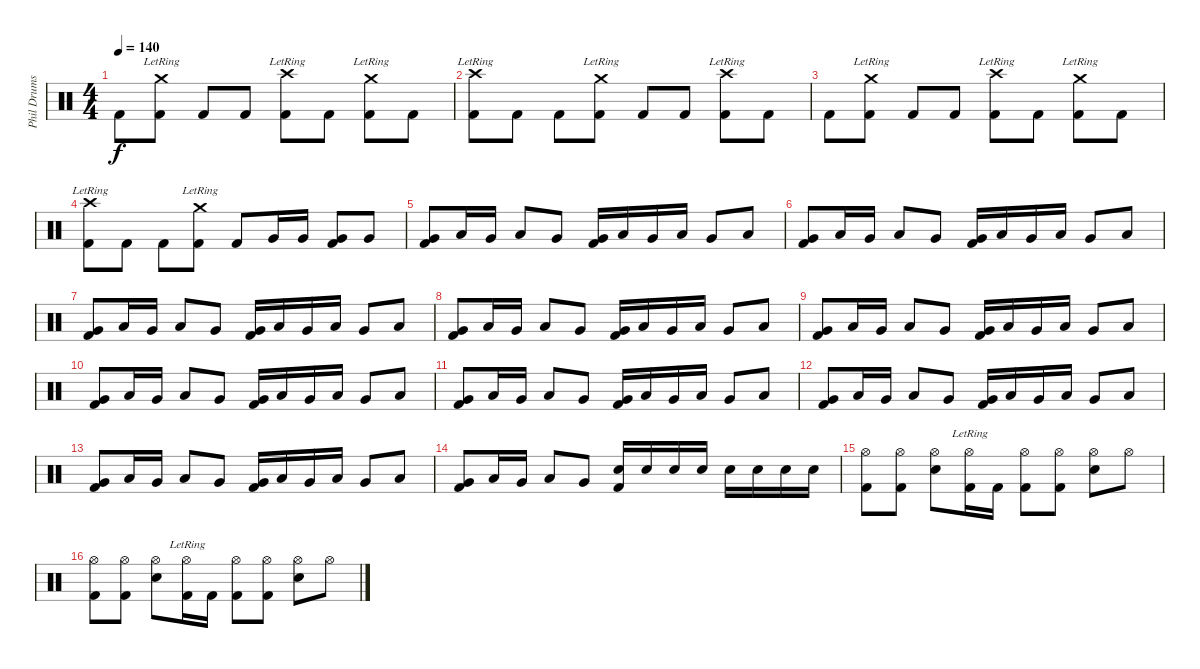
\track ("Phil Drums" "Phil Drums") {instrument percussion}
\staff {score}
\articulation defaults
\ts (4 4)
\tempo 140
\clef neutral
\ks c "Kick (hit) 2".8{dy f}
("Kick (hit) 2" "Crash medium (hit)"{lr}).8 "Kick (hit) 2".8 "Kick (hit) 2".8 ("Kick (hit) 2" "Crash high (hit)"{lr}).8 "Kick (hit) 2".8 ("Kick (hit) 2" "Crash medium (hit)"{lr}).8 "Kick (hit) 2".8 |
("Kick (hit) 2" "Crash high (hit)"{lr}).8 "Kick (hit) 2".8 "Kick (hit) 2".8 ("Kick (hit) 2" "Crash medium (hit)"{lr}).8 "Kick (hit) 2".8 "Kick (hit) 2".8 ("Kick (hit) 2" "Crash high (hit)"{lr}).8 "Kick (hit) 2".8 |
"Kick (hit) 2".8 ("Kick (hit) 2" "Crash medium (hit)"{lr}).8 "Kick (hit) 2".8 "Kick (hit) 2".8 ("Kick (hit) 2" "Crash high (hit)"{lr}).8 "Kick (hit) 2".8 ("Kick (hit) 2" "Crash medium (hit)"{lr}).8 "Kick (hit) 2".8 |
("Kick (hit) 2" "Crash high (hit)"{lr}).8 "Kick (hit) 2".8 "Kick (hit) 2".8 ("Kick (hit) 2" "Crash medium (hit)"{lr}).8 "Kick (hit) 2".8 "Very Low Tom (hit)".16 "Very Low Tom (hit)".16 ("Kick (hit) 2" "Very Low Tom (hit)").8 "Very Low Tom (hit)".8 |
("Kick (hit) 2" "Very Low Tom (hit)").8 "Low Tom (hit)".16 "Very Low Tom (hit)".16 "Low Tom (hit)".8 "Very Low Tom (hit)".8 ("Kick (hit) 2" "Very Low Tom (hit)").16 "Low Tom (hit)".16 "Very Low Tom (hit)".16 "Low Tom (hit)".16 "Very Low Tom (hit)".8 "Low Tom (hit)".8 |
("Kick (hit) 2" "Very Low Tom (hit)").8 "Low Tom (hit)".16 "Very Low Tom (hit)".16 "Low Tom (hit)".8 "Very Low Tom (hit)".8 ("Kick (hit) 2" "Very Low Tom (hit)").16 "Low Tom (hit)".16 "Very Low Tom (hit)".16 "Low Tom (hit)".16 "Very Low Tom (hit)".8 "Low Tom (hit)".8 |
("Kick (hit) 2" "Very Low Tom (hit)").8 "Low Tom (hit)".16 "Very Low Tom (hit)".16 "Low Tom (hit)".8 "Very Low Tom (hit)".8 ("Kick (hit) 2" "Very Low Tom (hit)").16 "Low Tom (hit)".16 "Very Low Tom (hit)".16 "Low Tom (hit)".16 "Very Low Tom (hit)".8 "Low Tom (hit)".8 |
("Kick (hit) 2" "Very Low Tom (hit)").8 "Low Tom (hit)".16 "Very Low Tom (hit)".16 "Low Tom (hit)".8 "Very Low Tom (hit)".8 ("Kick (hit) 2" "Very Low Tom (hit)").16 "Low Tom (hit)".16 "Very Low Tom (hit)".16 "Low Tom (hit)".16 "Very Low Tom (hit)".8 "Low Tom (hit)".8 |
("Kick (hit) 2" "Very Low Tom (hit)").8 "Low Tom (hit)".16 "Very Low Tom (hit)".16 "Low Tom (hit)".8 "Very Low Tom (hit)".8 ("Kick (hit) 2" "Very Low Tom (hit)").16 "Low Tom (hit)".16 "Very Low Tom (hit)".16 "Low Tom (hit)".16 "Very Low Tom (hit)".8 "Low Tom (hit)".8 |
("Kick (hit) 2" "Very Low Tom (hit)").8 "Low Tom (hit)".16 "Very Low Tom (hit)".16 "Low Tom (hit)".8 "Very Low Tom (hit)".8 ("Kick (hit) 2" "Very Low Tom (hit)").16 "Low Tom (hit)".16 "Very Low Tom (hit)".16 "Low Tom (hit)".16 "Very Low Tom (hit)".8 "Low Tom (hit)".8 |
("Kick (hit) 2" "Very Low Tom (hit)").8 "Low Tom (hit)".16 "Very Low Tom (hit)".16 "Low Tom (hit)".8 "Very Low Tom (hit)".8 ("Kick (hit) 2" "Very Low Tom (hit)").16 "Low Tom (hit)".16 "Very Low Tom (hit)".16 "Low Tom (hit)".16 "Very Low Tom (hit)".8 "Low Tom (hit)".8 |
("Kick (hit) 2" "Very Low Tom (hit)").8 "Low Tom (hit)".16 "Very Low Tom (hit)".16 "Low Tom (hit)".8 "Very Low Tom (hit)".8 ("Kick (hit) 2" "Very Low Tom (hit)").16 "Low Tom (hit)".16 "Very Low Tom (hit)".16 "Low Tom (hit)".16 "Very Low Tom (hit)".8 "Low Tom (hit)".8 |
("Kick (hit) 2" "Very Low Tom (hit)").8 "Low Tom (hit)".16 "Very Low Tom (hit)".16 "Low Tom (hit)".8 "Very Low Tom (hit)".8 ("Kick (hit) 2" "Very Low Tom (hit)").16 "Low Tom (hit)".16 "Very Low Tom (hit)".16 "Low Tom (hit)".16 "Very Low Tom (hit)".8 "Low Tom (hit)".8 |
("Kick (hit) 2" "Very Low Tom (hit)").8 "Low Tom (hit)".16 "Very Low Tom (hit)".16 "Low Tom (hit)".8 "Very Low Tom (hit)".8 ("Kick (hit) 2" "Snare (hit) 2").16 "Snare (hit) 2".16 "Snare (hit) 2".16 "Snare (hit) 2".16 "Snare (hit) 2".16 "Snare (hit) 2".16 "Snare (hit) 2".16 "Snare (hit) 2".16 |
("Kick (hit) 2" "Hi-Hat (open)").8 ("Kick (hit) 2" "Hi-Hat (open)").8 ("Snare (hit) 2" "Hi-Hat (open)").8 ("Kick (hit) 2" "Hi-Hat (open)"{lr}).16 "Kick (hit) 2".16 ("Kick (hit) 2" "Hi-Hat (open)").8 ("Kick (hit) 2" "Hi-Hat (open)").8 ("Snare (hit) 2" "Hi-Hat (open)").8 "Hi-Hat (open)".8 |
("Kick (hit) 2" "Hi-Hat (open)").8 ("Kick (hit) 2" "Hi-Hat (open)").8 ("Snare (hit) 2" "Hi-Hat (open)").8 ("Kick (hit) 2" "Hi-Hat (open)"{lr}).16 "Kick (hit) 2".16 ("Kick (hit) 2" "Hi-Hat (open)").8 ("Kick (hit) 2" "Hi-Hat (open)").8 ("Snare (hit) 2" "Hi-Hat (open)").8 "Hi-Hat (open)".8
